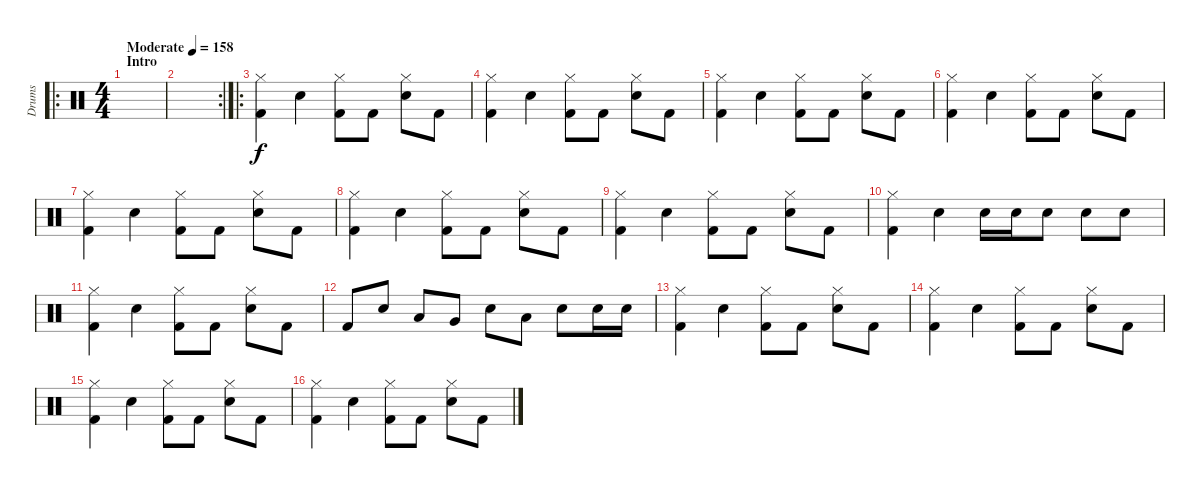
\track ("Drums" "Drums") {instrument percussion}
\staff {score}
\articulation defaults
\ro
\ts (4 4)
\section ("" "Intro")
\tempo (158 "Moderate")
\clef neutral
\ks c
|
\rc 2
|
\ro
("Hi-Hat (closed)" "Kick (hit) 2").4 "Snare (hit) 2".4 ("Hi-Hat (closed)" "Kick (hit) 2").8 "Kick (hit) 2".8 ("Hi-Hat (closed)" "Snare (hit) 2").8 "Kick (hit) 2".8 |
("Hi-Hat (closed)" "Kick (hit) 2").4 "Snare (hit) 2".4 ("Hi-Hat (closed)" "Kick (hit) 2").8 "Kick (hit) 2".8 ("Hi-Hat (closed)" "Snare (hit) 2").8 "Kick (hit) 2".8 |
("Hi-Hat (closed)" "Kick (hit) 2").4 "Snare (hit) 2".4 ("Hi-Hat (closed)" "Kick (hit) 2").8 "Kick (hit) 2".8 ("Hi-Hat (closed)" "Snare (hit) 2").8 "Kick (hit) 2".8 |
("Hi-Hat (closed)" "Kick (hit) 2").4 "Snare (hit) 2".4 ("Hi-Hat (closed)" "Kick (hit) 2").8 "Kick (hit) 2".8 ("Hi-Hat (closed)" "Snare (hit) 2").8 "Kick (hit) 2".8 |
("Hi-Hat (closed)" "Kick (hit) 2").4 "Snare (hit) 2".4 ("Hi-Hat (closed)" "Kick (hit) 2").8 "Kick (hit) 2".8 ("Hi-Hat (closed)" "Snare (hit) 2").8 "Kick (hit) 2".8 |
("Hi-Hat (closed)" "Kick (hit) 2").4 "Snare (hit) 2".4 ("Hi-Hat (closed)" "Kick (hit) 2").8 "Kick (hit) 2".8 ("Hi-Hat (closed)" "Snare (hit) 2").8 "Kick (hit) 2".8 |
("Hi-Hat (closed)" "Kick (hit) 2").4 "Snare (hit) 2".4 ("Hi-Hat (closed)" "Kick (hit) 2").8 "Kick (hit) 2".8 ("Hi-Hat (closed)" "Snare (hit) 2").8 "Kick (hit) 2".8 |
("Hi-Hat (closed)" "Kick (hit) 2").4 "Snare (hit) 2".4 "Snare (hit) 2".16 "Snare (hit) 2".16 "Snare (hit) 2".8 "Snare (hit) 2".8 "Snare (hit) 2".8 |
("Hi-Hat (closed)" "Kick (hit) 2").4 "Snare (hit) 2".4 ("Hi-Hat (closed)" "Kick (hit) 2").8 "Kick (hit) 2".8 ("Hi-Hat (closed)" "Snare (hit) 2").8 "Kick (hit) 2".8 |
"Kick (hit) 2".8 "Snare (hit) 2".8 "Low Tom (hit)".8 "Very Low Tom (hit)".8 "Snare (hit) 2".8 "Low Floor Tom (hit)".8 "Snare (hit) 2".8 "Snare (hit) 2".16 "Snare (hit) 2".16 |
("Hi-Hat (closed)" "Kick (hit) 2").4 "Snare (hit) 2".4 ("Hi-Hat (closed)" "Kick (hit) 2").8 "Kick (hit) 2".8 ("Hi-Hat (closed)" "Snare (hit) 2").8 "Kick (hit) 2".8 |
("Hi-Hat (closed)" "Kick (hit) 2").4 "Snare (hit) 2".4 ("Hi-Hat (closed)" "Kick (hit) 2").8 "Kick (hit) 2".8 ("Hi-Hat (closed)" "Snare (hit) 2").8 "Kick (hit) 2".8 |
("Hi-Hat (closed)" "Kick (hit) 2").4 "Snare (hit) 2".4 ("Hi-Hat (closed)" "Kick (hit) 2").8 "Kick (hit) 2".8 ("Hi-Hat (closed)" "Snare (hit) 2").8 "Kick (hit) 2".8 |
("Hi-Hat (closed)" "Kick (hit) 2").4 "Snare (hit) 2".4 ("Hi-Hat (closed)" "Kick (hit) 2").8 "Kick (hit) 2".8 ("Hi-Hat (closed)" "Snare (hit) 2").8 "Kick (hit) 2".8
